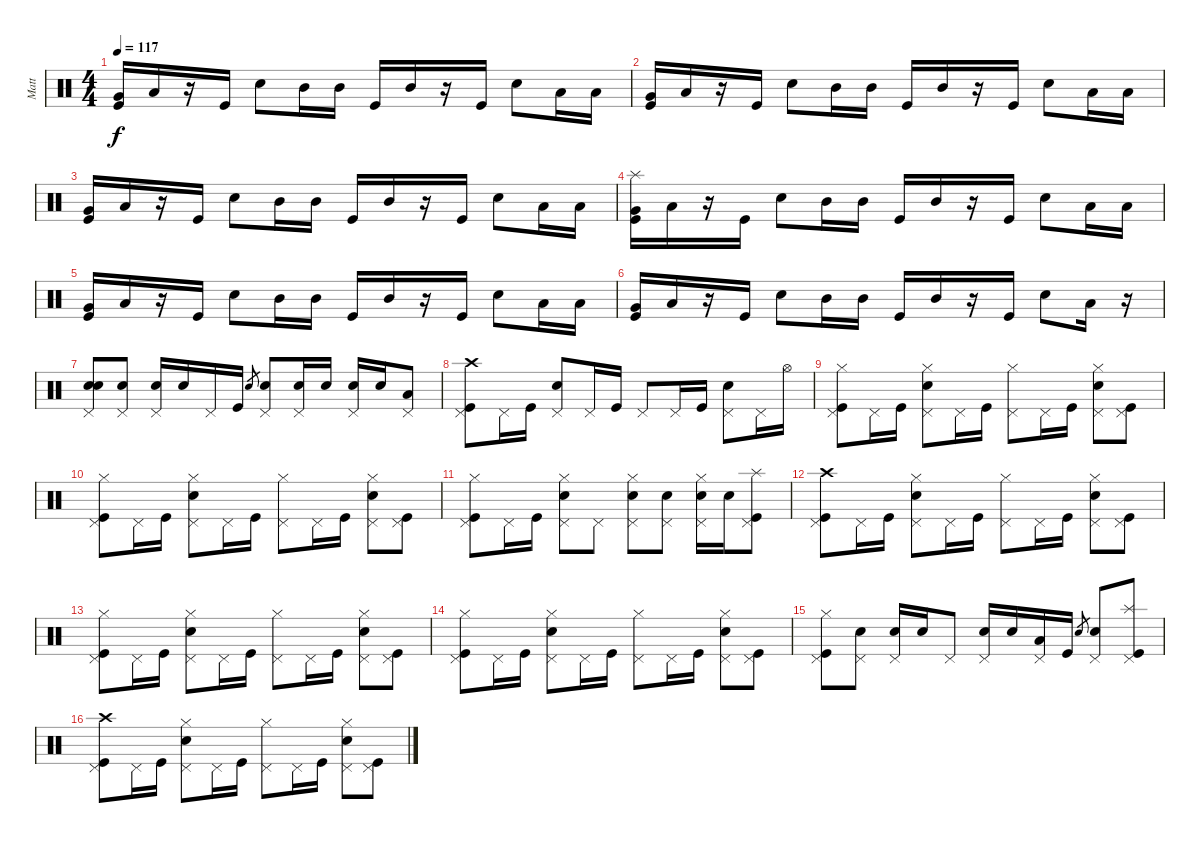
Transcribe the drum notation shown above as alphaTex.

\track ("Matt" "Matt") {instrument percussion}
\staff {score}
\articulation defaults
\ts (4 4)
\tempo 117
\clef neutral
\ks c
("Very Low Tom (hit)" "Kick (hit)").16{dy f} "Low Tom (hit)".16 r.16 "Kick (hit)".16 "Snare (hit) 2".8 "Mid Tom (hit)".16 "Mid Tom (hit)".16 "Kick (hit)".16 "Mid Tom (hit)".16 r.16 "Kick (hit)".16 "Snare (hit) 2".8 "Low Tom (hit)".16 "Low Tom (hit)".16 |
("Very Low Tom (hit)" "Kick (hit)").16 "Low Tom (hit)".16 r.16 "Kick (hit)".16 "Snare (hit) 2".8 "Mid Tom (hit)".16 "Mid Tom (hit)".16 "Kick (hit)".16 "Mid Tom (hit)".16 r.16 "Kick (hit)".16 "Snare (hit) 2".8 "Low Tom (hit)".16 "Low Tom (hit)".16 |
("Very Low Tom (hit)" "Kick (hit)").16 "Low Tom (hit)".16 r.16 "Kick (hit)".16 "Snare (hit) 2".8 "Mid Tom (hit)".16 "Mid Tom (hit)".16 "Kick (hit)".16 "Mid Tom (hit)".16 r.16 "Kick (hit)".16 "Snare (hit) 2".8 "Low Tom (hit)".16 "Low Tom (hit)".16 |
("Splash (hit)" "Very Low Tom (hit)" "Kick (hit)").16 "Low Tom (hit)".16 r.16 "Kick (hit)".16 "Snare (hit) 2".8 "Mid Tom (hit)".16 "Mid Tom (hit)".16 "Kick (hit)".16 "Mid Tom (hit)".16 r.16 "Kick (hit)".16 "Snare (hit) 2".8 "Low Tom (hit)".16 "Low Tom (hit)".16 |
("Very Low Tom (hit)" "Kick (hit)").16 "Low Tom (hit)".16 r.16 "Kick (hit)".16 "Snare (hit) 2".8 "Mid Tom (hit)".16 "Mid Tom (hit)".16 "Kick (hit)".16 "Mid Tom (hit)".16 r.16 "Kick (hit)".16 "Snare (hit) 2".8 "Low Tom (hit)".16 "Low Tom (hit)".16 |
("Very Low Tom (hit)" "Kick (hit)").16 "Low Tom (hit)".16 r.16 "Kick (hit)".16 "Snare (hit) 2".8 "Mid Tom (hit)".16 "Mid Tom (hit)".16 "Kick (hit)".16 "Mid Tom (hit)".16 r.16 "Kick (hit)".16 "Snare (hit) 2".8 "Low Tom (hit)".16 r.16 |
("Snare (hit)" "Snare (hit) 2" "Pedal Hi-Hat (hit)").8 ("Snare (hit) 2" "Pedal Hi-Hat (hit)").8 ("Snare (hit) 2" "Pedal Hi-Hat (hit)").16 "Snare (hit) 2".16 "Pedal Hi-Hat (hit)".16 "Kick (hit)".16 "Snare (hit) 2".8{gr} ("Snare (hit) 2" "Pedal Hi-Hat (hit)").8 ("Snare (hit) 2" "Pedal Hi-Hat (hit)").16 "Snare (hit) 2".16 ("Snare (hit) 2" "Pedal Hi-Hat (hit)").16 "Snare (hit) 2".16 ("Low Tom (hit)" "Pedal Hi-Hat (hit)").8 |
("Crash high (hit)" "Kick (hit)" "Pedal Hi-Hat (hit)").8 "Pedal Hi-Hat (hit)".16 "Kick (hit)".16 ("Snare (hit) 2" "Pedal Hi-Hat (hit)").8 "Pedal Hi-Hat (hit)".16 "Kick (hit)".16 "Pedal Hi-Hat (hit)".8 "Pedal Hi-Hat (hit)".16 "Kick (hit)".16 ("Snare (hit) 2" "Pedal Hi-Hat (hit)").8 "Pedal Hi-Hat (hit)".16 "Hi-Hat (open)".16 |
("Hi-Hat (closed)" "Kick (hit)" "Pedal Hi-Hat (hit)").8 "Pedal Hi-Hat (hit)".16 "Kick (hit)".16 ("Hi-Hat (closed)" "Snare (hit) 2" "Pedal Hi-Hat (hit)").8 "Pedal Hi-Hat (hit)".16 "Kick (hit)".16 ("Hi-Hat (closed)" "Pedal Hi-Hat (hit)").8 "Pedal Hi-Hat (hit)".16 "Kick (hit)".16 ("Hi-Hat (closed)" "Snare (hit) 2" "Pedal Hi-Hat (hit)").8 ("Kick (hit)" "Pedal Hi-Hat (hit)").8 |
("Hi-Hat (closed)" "Kick (hit)" "Pedal Hi-Hat (hit)").8 "Pedal Hi-Hat (hit)".16 "Kick (hit)".16 ("Hi-Hat (closed)" "Snare (hit) 2" "Pedal Hi-Hat (hit)").8 "Pedal Hi-Hat (hit)".16 "Kick (hit)".16 ("Hi-Hat (closed)" "Pedal Hi-Hat (hit)").8 "Pedal Hi-Hat (hit)".16 "Kick (hit)".16 ("Hi-Hat (closed)" "Snare (hit) 2" "Pedal Hi-Hat (hit)").8 ("Kick (hit)" "Pedal Hi-Hat (hit)").8 |
("Hi-Hat (closed)" "Kick (hit)" "Pedal Hi-Hat (hit)").8 "Pedal Hi-Hat (hit)".16 "Kick (hit)".16 ("Hi-Hat (closed)" "Snare (hit) 2" "Pedal Hi-Hat (hit)").8 "Pedal Hi-Hat (hit)".8 ("Hi-Hat (closed)" "Snare (hit) 2" "Pedal Hi-Hat (hit)").8 ("Snare (hit) 2" "Pedal Hi-Hat (hit)").8 ("Hi-Hat (closed)" "Snare (hit) 2" "Pedal Hi-Hat (hit)").16 "Snare (hit) 2".16 ("Splash (hit)" "Kick (hit)" "Pedal Hi-Hat (hit)").8 |
("Crash high (hit)" "Kick (hit)" "Pedal Hi-Hat (hit)").8 "Pedal Hi-Hat (hit)".16 "Kick (hit)".16 ("Hi-Hat (closed)" "Snare (hit) 2" "Pedal Hi-Hat (hit)").8 "Pedal Hi-Hat (hit)".16 "Kick (hit)".16 ("Hi-Hat (closed)" "Pedal Hi-Hat (hit)").8 "Pedal Hi-Hat (hit)".16 "Kick (hit)".16 ("Hi-Hat (closed)" "Snare (hit) 2" "Pedal Hi-Hat (hit)").8 ("Kick (hit)" "Pedal Hi-Hat (hit)").8 |
("Hi-Hat (closed)" "Kick (hit)" "Pedal Hi-Hat (hit)").8 "Pedal Hi-Hat (hit)".16 "Kick (hit)".16 ("Hi-Hat (closed)" "Snare (hit) 2" "Pedal Hi-Hat (hit)").8 "Pedal Hi-Hat (hit)".16 "Kick (hit)".16 ("Hi-Hat (closed)" "Pedal Hi-Hat (hit)").8 "Pedal Hi-Hat (hit)".16 "Kick (hit)".16 ("Hi-Hat (closed)" "Snare (hit) 2" "Pedal Hi-Hat (hit)").8 ("Kick (hit)" "Pedal Hi-Hat (hit)").8 |
("Hi-Hat (closed)" "Kick (hit)" "Pedal Hi-Hat (hit)").8 "Pedal Hi-Hat (hit)".16 "Kick (hit)".16 ("Hi-Hat (closed)" "Snare (hit) 2" "Pedal Hi-Hat (hit)").8 "Pedal Hi-Hat (hit)".16 "Kick (hit)".16 ("Hi-Hat (closed)" "Pedal Hi-Hat (hit)").8 "Pedal Hi-Hat (hit)".16 "Kick (hit)".16 ("Hi-Hat (closed)" "Snare (hit) 2" "Pedal Hi-Hat (hit)").8 ("Kick (hit)" "Pedal Hi-Hat (hit)").8 |
("Hi-Hat (closed)" "Kick (hit)" "Pedal Hi-Hat (hit)").8 ("Snare (hit) 2" "Pedal Hi-Hat (hit)").8 ("Snare (hit) 2" "Pedal Hi-Hat (hit)").16 "Snare (hit) 2".16 "Pedal Hi-Hat (hit)".8 ("Snare (hit) 2" "Pedal Hi-Hat (hit)").16 "Snare (hit) 2".16 ("Low Tom (hit)" "Pedal Hi-Hat (hit)").16 "Kick (hit)".16 "Snare (hit) 2".8{gr} ("Snare (hit) 2" "Pedal Hi-Hat (hit)").8 ("Splash (hit)" "Kick (hit)" "Pedal Hi-Hat (hit)").8 |
("Crash high (hit)" "Kick (hit)" "Pedal Hi-Hat (hit)").8 "Pedal Hi-Hat (hit)".16 "Kick (hit)".16 ("Hi-Hat (closed)" "Snare (hit) 2" "Pedal Hi-Hat (hit)").8 "Pedal Hi-Hat (hit)".16 "Kick (hit)".16 ("Hi-Hat (closed)" "Pedal Hi-Hat (hit)").8 "Pedal Hi-Hat (hit)".16 "Kick (hit)".16 ("Hi-Hat (closed)" "Snare (hit) 2" "Pedal Hi-Hat (hit)").8 ("Kick (hit)" "Pedal Hi-Hat (hit)").8
